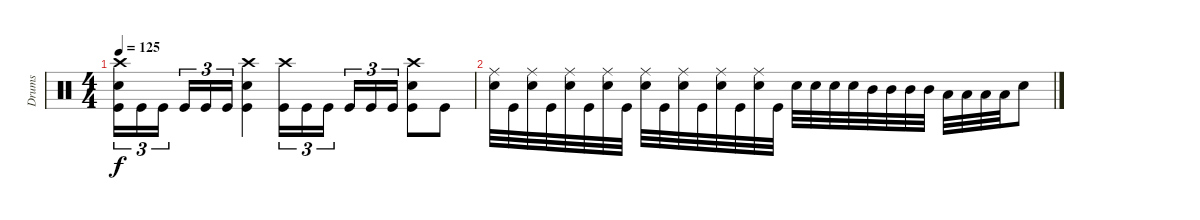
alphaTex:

\track ("Drums" "Drums") {instrument percussion}
\staff
\articulation defaults
\ts (4 4)
\tempo 125
\clef neutral
\ks c
("Crash high (hit)" "Electric Snare (hit)" "Kick (hit)").16{tu (3 2) dy f} "Kick (hit)".16{tu (3 2)} "Kick (hit)".16{tu (3 2) beam splitsecondary} "Kick (hit)".16{tu (3 2)} "Kick (hit)".16{tu (3 2)} "Kick (hit)".16{tu (3 2)} ("Crash high (hit)" "Electric Snare (hit)" "Kick (hit)").4 ("Crash high (hit)" "Kick (hit)").16{tu (3 2)} "Kick (hit)".16{tu (3 2)} "Kick (hit)".16{tu (3 2) beam splitsecondary} "Kick (hit)".16{tu (3 2)} "Kick (hit)".16{tu (3 2)} "Kick (hit)".16{tu (3 2)} ("Crash high (hit)" "Electric Snare (hit)" "Kick (hit)").8 "Kick (hit)".8 |
("Ride (middle)" "Electric Snare (hit)").32 "Kick (hit)".32 ("Ride (middle)" "Electric Snare (hit)").32 "Kick (hit)".32 ("Ride (middle)" "Electric Snare (hit)").32 "Kick (hit)".32 ("Ride (middle)" "Electric Snare (hit)").32 "Kick (hit)".32 ("Ride (middle)" "Electric Snare (hit)").32 "Kick (hit)".32 ("Ride (middle)" "Electric Snare (hit)").32 "Kick (hit)".32 ("Ride (middle)" "Electric Snare (hit)").32 "Kick (hit)".32 ("Ride (middle)" "Electric Snare (hit)").32 "Kick (hit)".32 "Electric Snare (hit)".32 "Electric Snare (hit)".32 "Electric Snare (hit)".32 "Electric Snare (hit)".32 "Mid Tom (hit)".32 "Mid Tom (hit)".32 "Mid Tom (hit)".32 "Mid Tom (hit)".32 "Low Tom (hit)".32 "Low Tom (hit)".32 "Low Tom (hit)".32 "Low Tom (hit)".32 "Electric Snare (hit)".8
